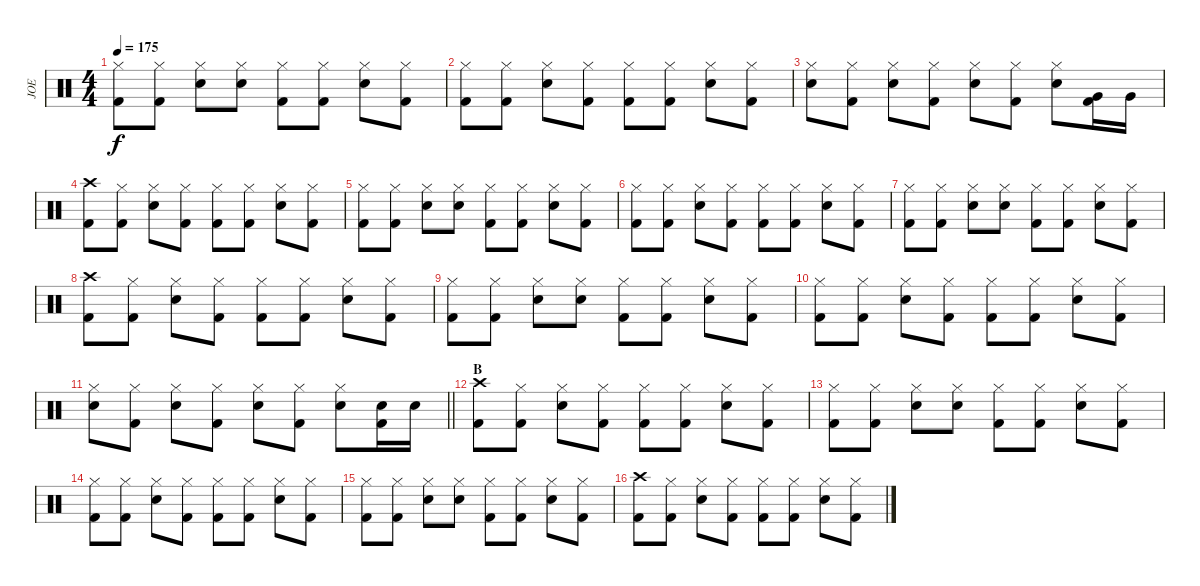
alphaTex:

\track ("JOE" "JOE") {instrument percussion}
\staff {score}
\articulation defaults
\ts (4 4)
\tempo 175
\clef neutral
\ks c
("Hi-Hat (closed)" "Kick (hit) 2").8{dy f} ("Hi-Hat (closed)" "Kick (hit) 2").8 ("Hi-Hat (closed)" "Snare (hit) 2").8 ("Hi-Hat (closed)" "Snare (hit) 2").8 ("Hi-Hat (closed)" "Kick (hit) 2").8 ("Hi-Hat (closed)" "Kick (hit) 2").8 ("Hi-Hat (closed)" "Snare (hit) 2").8 ("Hi-Hat (closed)" "Kick (hit) 2").8 |
("Hi-Hat (closed)" "Kick (hit) 2").8 ("Hi-Hat (closed)" "Kick (hit) 2").8 ("Hi-Hat (closed)" "Snare (hit) 2").8 ("Hi-Hat (closed)" "Kick (hit) 2").8 ("Hi-Hat (closed)" "Kick (hit) 2").8 ("Hi-Hat (closed)" "Kick (hit) 2").8 ("Hi-Hat (closed)" "Snare (hit) 2").8 ("Hi-Hat (closed)" "Kick (hit) 2").8 |
("Hi-Hat (closed)" "Snare (hit) 2").8 ("Hi-Hat (closed)" "Kick (hit) 2").8 ("Hi-Hat (closed)" "Snare (hit) 2").8 ("Hi-Hat (closed)" "Kick (hit) 2").8 ("Hi-Hat (closed)" "Snare (hit) 2").8 ("Hi-Hat (closed)" "Kick (hit) 2").8 ("Hi-Hat (closed)" "Snare (hit) 2").8 ("Very Low Tom (hit)" "Kick (hit) 2").16 "Very Low Tom (hit)".16 |
("Crash high (hit)" "Kick (hit) 2").8 ("Hi-Hat (closed)" "Kick (hit) 2").8 ("Hi-Hat (closed)" "Snare (hit) 2").8 ("Hi-Hat (closed)" "Kick (hit) 2").8 ("Hi-Hat (closed)" "Kick (hit) 2").8 ("Hi-Hat (closed)" "Kick (hit) 2").8 ("Hi-Hat (closed)" "Snare (hit) 2").8 ("Hi-Hat (closed)" "Kick (hit) 2").8 |
("Hi-Hat (closed)" "Kick (hit) 2").8 ("Hi-Hat (closed)" "Kick (hit) 2").8 ("Hi-Hat (closed)" "Snare (hit) 2").8 ("Hi-Hat (closed)" "Snare (hit) 2").8 ("Hi-Hat (closed)" "Kick (hit) 2").8 ("Hi-Hat (closed)" "Kick (hit) 2").8 ("Hi-Hat (closed)" "Snare (hit) 2").8 ("Hi-Hat (closed)" "Kick (hit) 2").8 |
("Hi-Hat (closed)" "Kick (hit) 2").8 ("Hi-Hat (closed)" "Kick (hit) 2").8 ("Hi-Hat (closed)" "Snare (hit) 2").8 ("Hi-Hat (closed)" "Kick (hit) 2").8 ("Hi-Hat (closed)" "Kick (hit) 2").8 ("Hi-Hat (closed)" "Kick (hit) 2").8 ("Hi-Hat (closed)" "Snare (hit) 2").8 ("Hi-Hat (closed)" "Kick (hit) 2").8 |
("Hi-Hat (closed)" "Kick (hit) 2").8 ("Hi-Hat (closed)" "Kick (hit) 2").8 ("Hi-Hat (closed)" "Snare (hit) 2").8 ("Hi-Hat (closed)" "Snare (hit) 2").8 ("Hi-Hat (closed)" "Kick (hit) 2").8 ("Hi-Hat (closed)" "Kick (hit) 2").8 ("Hi-Hat (closed)" "Snare (hit) 2").8 ("Hi-Hat (closed)" "Kick (hit) 2").8 |
("Crash high (hit)" "Kick (hit) 2").8 ("Hi-Hat (closed)" "Kick (hit) 2").8 ("Hi-Hat (closed)" "Snare (hit) 2").8 ("Hi-Hat (closed)" "Kick (hit) 2").8 ("Hi-Hat (closed)" "Kick (hit) 2").8 ("Hi-Hat (closed)" "Kick (hit) 2").8 ("Hi-Hat (closed)" "Snare (hit) 2").8 ("Hi-Hat (closed)" "Kick (hit) 2").8 |
("Hi-Hat (closed)" "Kick (hit) 2").8 ("Hi-Hat (closed)" "Kick (hit) 2").8 ("Hi-Hat (closed)" "Snare (hit) 2").8 ("Hi-Hat (closed)" "Snare (hit) 2").8 ("Hi-Hat (closed)" "Kick (hit) 2").8 ("Hi-Hat (closed)" "Kick (hit) 2").8 ("Hi-Hat (closed)" "Snare (hit) 2").8 ("Hi-Hat (closed)" "Kick (hit) 2").8 |
("Hi-Hat (closed)" "Kick (hit) 2").8 ("Hi-Hat (closed)" "Kick (hit) 2").8 ("Hi-Hat (closed)" "Snare (hit) 2").8 ("Hi-Hat (closed)" "Kick (hit) 2").8 ("Hi-Hat (closed)" "Kick (hit) 2").8 ("Hi-Hat (closed)" "Kick (hit) 2").8 ("Hi-Hat (closed)" "Snare (hit) 2").8 ("Hi-Hat (closed)" "Kick (hit) 2").8 |
\barLineRight lightlight
("Hi-Hat (closed)" "Snare (hit) 2").8 ("Hi-Hat (closed)" "Kick (hit) 2").8 ("Hi-Hat (closed)" "Snare (hit) 2").8 ("Hi-Hat (closed)" "Kick (hit) 2").8 ("Hi-Hat (closed)" "Snare (hit) 2").8 ("Hi-Hat (closed)" "Kick (hit) 2").8 ("Hi-Hat (closed)" "Snare (hit) 2").8 ("Snare (hit) 2" "Kick (hit) 2").16 "Snare (hit) 2".16 |
\section ("" "B")
("Crash high (hit)" "Kick (hit) 2").8 ("Hi-Hat (closed)" "Kick (hit) 2").8 ("Hi-Hat (closed)" "Snare (hit) 2").8 ("Hi-Hat (closed)" "Kick (hit) 2").8 ("Hi-Hat (closed)" "Kick (hit) 2").8 ("Hi-Hat (closed)" "Kick (hit) 2").8 ("Hi-Hat (closed)" "Snare (hit) 2").8 ("Hi-Hat (closed)" "Kick (hit) 2").8 |
("Hi-Hat (closed)" "Kick (hit) 2").8 ("Hi-Hat (closed)" "Kick (hit) 2").8 ("Hi-Hat (closed)" "Snare (hit) 2").8 ("Hi-Hat (closed)" "Snare (hit) 2").8 ("Hi-Hat (closed)" "Kick (hit) 2").8 ("Hi-Hat (closed)" "Kick (hit) 2").8 ("Hi-Hat (closed)" "Snare (hit) 2").8 ("Hi-Hat (closed)" "Kick (hit) 2").8 |
("Hi-Hat (closed)" "Kick (hit) 2").8 ("Hi-Hat (closed)" "Kick (hit) 2").8 ("Hi-Hat (closed)" "Snare (hit) 2").8 ("Hi-Hat (closed)" "Kick (hit) 2").8 ("Hi-Hat (closed)" "Kick (hit) 2").8 ("Hi-Hat (closed)" "Kick (hit) 2").8 ("Hi-Hat (closed)" "Snare (hit) 2").8 ("Hi-Hat (closed)" "Kick (hit) 2").8 |
("Hi-Hat (closed)" "Kick (hit) 2").8 ("Hi-Hat (closed)" "Kick (hit) 2").8 ("Hi-Hat (closed)" "Snare (hit) 2").8 ("Hi-Hat (closed)" "Snare (hit) 2").8 ("Hi-Hat (closed)" "Kick (hit) 2").8 ("Hi-Hat (closed)" "Kick (hit) 2").8 ("Hi-Hat (closed)" "Snare (hit) 2").8 ("Hi-Hat (closed)" "Kick (hit) 2").8 |
("Crash high (hit)" "Kick (hit) 2").8 ("Hi-Hat (closed)" "Kick (hit) 2").8 ("Hi-Hat (closed)" "Snare (hit) 2").8 ("Hi-Hat (closed)" "Kick (hit) 2").8 ("Hi-Hat (closed)" "Kick (hit) 2").8 ("Hi-Hat (closed)" "Kick (hit) 2").8 ("Hi-Hat (closed)" "Snare (hit) 2").8 ("Hi-Hat (closed)" "Kick (hit) 2").8
